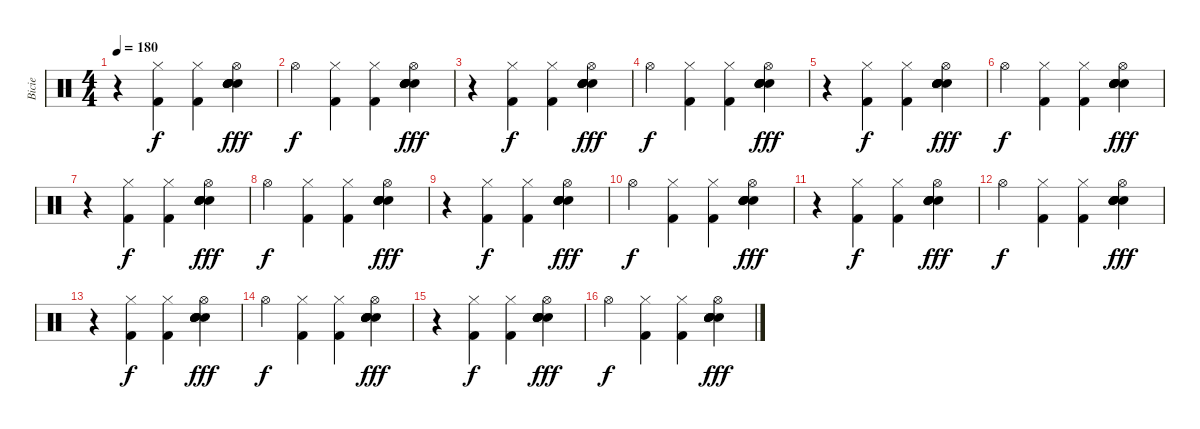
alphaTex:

\track ("Bicie" "Bicie") {instrument percussion}
\staff {score}
\articulation defaults
\ts (4 4)
\tempo 180
\clef neutral
\ks c
r.4{dy f} ("Hi-Hat (closed)" "Kick (hit) 2").4 ("Hi-Hat (closed)" "Kick (hit) 2").4 ("Snare (hit) 2" "Snare (hit) 2" "Snare (hit) 2" "Snare (hit) 2" "Hi-Hat (open)" "Electric Snare (hit)").4{dy fff} |
"Hi-Hat (open)".4{dy f} ("Hi-Hat (closed)" "Kick (hit) 2").4 ("Hi-Hat (closed)" "Kick (hit) 2").4 ("Electric Snare (hit)" "Snare (hit) 2" "Snare (hit) 2" "Electric Snare (hit)" "Hi-Hat (open)" "Electric Snare (hit)").4{dy fff} |
r.4 ("Hi-Hat (closed)" "Kick (hit) 2").4{dy f} ("Hi-Hat (closed)" "Kick (hit) 2").4 ("Snare (hit) 2" "Snare (hit) 2" "Snare (hit) 2" "Snare (hit) 2" "Hi-Hat (open)" "Electric Snare (hit)").4{dy fff} |
"Hi-Hat (open)".4{dy f} ("Hi-Hat (closed)" "Kick (hit) 2").4 ("Hi-Hat (closed)" "Kick (hit) 2").4 ("Electric Snare (hit)" "Snare (hit) 2" "Snare (hit) 2" "Electric Snare (hit)" "Hi-Hat (open)" "Electric Snare (hit)").4{dy fff} |
r.4 ("Hi-Hat (closed)" "Kick (hit) 2").4{dy f} ("Hi-Hat (closed)" "Kick (hit) 2").4 ("Snare (hit) 2" "Snare (hit) 2" "Snare (hit) 2" "Snare (hit) 2" "Hi-Hat (open)" "Electric Snare (hit)").4{dy fff} |
"Hi-Hat (open)".4{dy f} ("Hi-Hat (closed)" "Kick (hit) 2").4 ("Hi-Hat (closed)" "Kick (hit) 2").4 ("Electric Snare (hit)" "Snare (hit) 2" "Snare (hit) 2" "Electric Snare (hit)" "Hi-Hat (open)" "Electric Snare (hit)").4{dy fff} |
r.4 ("Hi-Hat (closed)" "Kick (hit) 2").4{dy f} ("Hi-Hat (closed)" "Kick (hit) 2").4 ("Snare (hit) 2" "Snare (hit) 2" "Snare (hit) 2" "Snare (hit) 2" "Hi-Hat (open)" "Electric Snare (hit)").4{dy fff} |
"Hi-Hat (open)".4{dy f} ("Hi-Hat (closed)" "Kick (hit) 2").4 ("Hi-Hat (closed)" "Kick (hit) 2").4 ("Electric Snare (hit)" "Snare (hit) 2" "Snare (hit) 2" "Electric Snare (hit)" "Hi-Hat (open)" "Electric Snare (hit)").4{dy fff} |
r.4 ("Hi-Hat (closed)" "Kick (hit) 2").4{dy f} ("Hi-Hat (closed)" "Kick (hit) 2").4 ("Snare (hit) 2" "Snare (hit) 2" "Snare (hit) 2" "Snare (hit) 2" "Hi-Hat (open)" "Electric Snare (hit)").4{dy fff} |
"Hi-Hat (open)".4{dy f} ("Hi-Hat (closed)" "Kick (hit) 2").4 ("Hi-Hat (closed)" "Kick (hit) 2").4 ("Electric Snare (hit)" "Snare (hit) 2" "Snare (hit) 2" "Electric Snare (hit)" "Hi-Hat (open)" "Electric Snare (hit)").4{dy fff} |
r.4 ("Hi-Hat (closed)" "Kick (hit) 2").4{dy f} ("Hi-Hat (closed)" "Kick (hit) 2").4 ("Snare (hit) 2" "Snare (hit) 2" "Snare (hit) 2" "Snare (hit) 2" "Hi-Hat (open)" "Electric Snare (hit)").4{dy fff} |
"Hi-Hat (open)".4{dy f} ("Hi-Hat (closed)" "Kick (hit) 2").4 ("Hi-Hat (closed)" "Kick (hit) 2").4 ("Electric Snare (hit)" "Snare (hit) 2" "Snare (hit) 2" "Electric Snare (hit)" "Hi-Hat (open)" "Electric Snare (hit)").4{dy fff} |
r.4 ("Hi-Hat (closed)" "Kick (hit) 2").4{dy f} ("Hi-Hat (closed)" "Kick (hit) 2").4 ("Snare (hit) 2" "Snare (hit) 2" "Snare (hit) 2" "Snare (hit) 2" "Hi-Hat (open)" "Electric Snare (hit)").4{dy fff} |
"Hi-Hat (open)".4{dy f} ("Hi-Hat (closed)" "Kick (hit) 2").4 ("Hi-Hat (closed)" "Kick (hit) 2").4 ("Electric Snare (hit)" "Snare (hit) 2" "Snare (hit) 2" "Electric Snare (hit)" "Hi-Hat (open)" "Electric Snare (hit)").4{dy fff} |
r.4 ("Hi-Hat (closed)" "Kick (hit) 2").4{dy f} ("Hi-Hat (closed)" "Kick (hit) 2").4 ("Snare (hit) 2" "Snare (hit) 2" "Snare (hit) 2" "Snare (hit) 2" "Hi-Hat (open)" "Electric Snare (hit)").4{dy fff} |
"Hi-Hat (open)".4{dy f} ("Hi-Hat (closed)" "Kick (hit) 2").4 ("Hi-Hat (closed)" "Kick (hit) 2").4 ("Electric Snare (hit)" "Snare (hit) 2" "Snare (hit) 2" "Electric Snare (hit)" "Hi-Hat (open)" "Electric Snare (hit)").4{dy fff}
